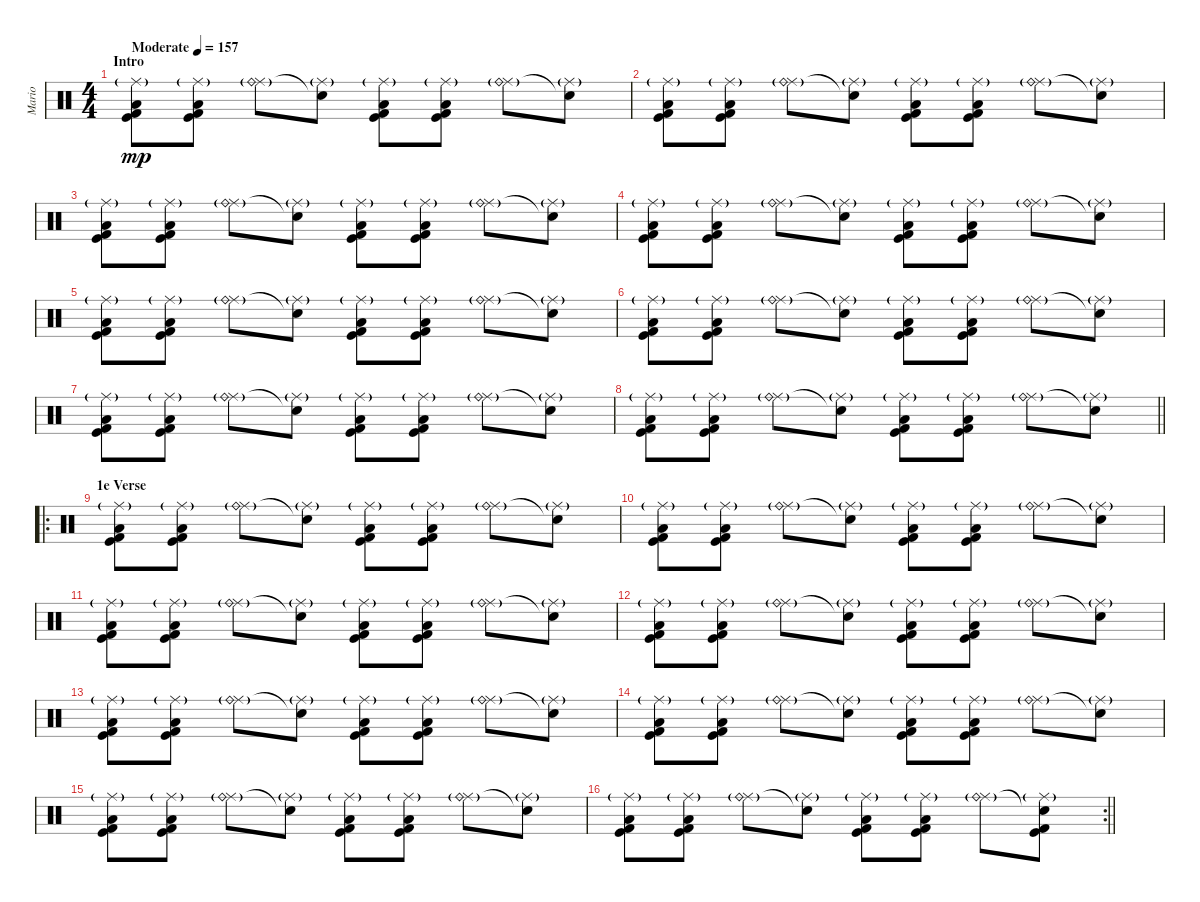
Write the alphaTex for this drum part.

\track ("Mario" "Mario") {instrument percussion}
\staff {score}
\articulation defaults
\ts (4 4)
\section ("" "Intro")
\tempo (157 "Moderate")
\clef neutral
\ks c
("Ride (middle)"{g} "Low Floor Tom (hit)" "Kick (hit)" "Kick (hit) 2").8{dy mp} ("Ride (middle)"{g} "Low Floor Tom (hit)" "Kick (hit)" "Kick (hit) 2").8 ("Ride (middle)"{g} "Ride (bell)").8 ("Ride (middle)"{g} "Snare (hit)"{t}).8 ("Ride (middle)"{g} "Low Floor Tom (hit)" "Kick (hit)" "Kick (hit) 2").8 ("Ride (middle)"{g} "Low Floor Tom (hit)" "Kick (hit)" "Kick (hit) 2").8 ("Ride (middle)"{g} "Ride (bell)").8 ("Ride (middle)"{g} "Snare (hit)"{t}).8 |
("Ride (middle)"{g} "Low Floor Tom (hit)" "Kick (hit)" "Kick (hit) 2").8 ("Ride (middle)"{g} "Low Floor Tom (hit)" "Kick (hit)" "Kick (hit) 2").8 ("Ride (middle)"{g} "Ride (bell)").8 ("Ride (middle)"{g} "Snare (hit)"{t}).8 ("Ride (middle)"{g} "Low Floor Tom (hit)" "Kick (hit)" "Kick (hit) 2").8 ("Ride (middle)"{g} "Low Floor Tom (hit)" "Kick (hit)" "Kick (hit) 2").8 ("Ride (middle)"{g} "Ride (bell)").8 ("Ride (middle)"{g} "Snare (hit)"{t}).8 |
("Ride (middle)"{g} "Low Floor Tom (hit)" "Kick (hit)" "Kick (hit) 2").8 ("Ride (middle)"{g} "Low Floor Tom (hit)" "Kick (hit)" "Kick (hit) 2").8 ("Ride (middle)"{g} "Ride (bell)").8 ("Ride (middle)"{g} "Snare (hit)"{t}).8 ("Ride (middle)"{g} "Low Floor Tom (hit)" "Kick (hit)" "Kick (hit) 2").8 ("Ride (middle)"{g} "Low Floor Tom (hit)" "Kick (hit)" "Kick (hit) 2").8 ("Ride (middle)"{g} "Ride (bell)").8 ("Ride (middle)"{g} "Snare (hit)"{t}).8 |
("Ride (middle)"{g} "Low Floor Tom (hit)" "Kick (hit)" "Kick (hit) 2").8 ("Ride (middle)"{g} "Low Floor Tom (hit)" "Kick (hit)" "Kick (hit) 2").8 ("Ride (middle)"{g} "Ride (bell)").8 ("Ride (middle)"{g} "Snare (hit)"{t}).8 ("Ride (middle)"{g} "Low Floor Tom (hit)" "Kick (hit)" "Kick (hit) 2").8 ("Ride (middle)"{g} "Low Floor Tom (hit)" "Kick (hit)" "Kick (hit) 2").8 ("Ride (middle)"{g} "Ride (bell)").8 ("Ride (middle)"{g} "Snare (hit)"{t}).8 |
("Ride (middle)"{g} "Low Floor Tom (hit)" "Kick (hit)" "Kick (hit) 2").8 ("Ride (middle)"{g} "Low Floor Tom (hit)" "Kick (hit)" "Kick (hit) 2").8 ("Ride (middle)"{g} "Ride (bell)").8 ("Ride (middle)"{g} "Snare (hit)"{t}).8 ("Ride (middle)"{g} "Low Floor Tom (hit)" "Kick (hit)" "Kick (hit) 2").8 ("Ride (middle)"{g} "Low Floor Tom (hit)" "Kick (hit)" "Kick (hit) 2").8 ("Ride (middle)"{g} "Ride (bell)").8 ("Ride (middle)"{g} "Snare (hit)"{t}).8 |
("Ride (middle)"{g} "Low Floor Tom (hit)" "Kick (hit)" "Kick (hit) 2").8 ("Ride (middle)"{g} "Low Floor Tom (hit)" "Kick (hit)" "Kick (hit) 2").8 ("Ride (middle)"{g} "Ride (bell)").8 ("Ride (middle)"{g} "Snare (hit)"{t}).8 ("Ride (middle)"{g} "Low Floor Tom (hit)" "Kick (hit)" "Kick (hit) 2").8 ("Ride (middle)"{g} "Low Floor Tom (hit)" "Kick (hit)" "Kick (hit) 2").8 ("Ride (middle)"{g} "Ride (bell)").8 ("Ride (middle)"{g} "Snare (hit)"{t}).8 |
("Ride (middle)"{g} "Low Floor Tom (hit)" "Kick (hit)" "Kick (hit) 2").8 ("Ride (middle)"{g} "Low Floor Tom (hit)" "Kick (hit)" "Kick (hit) 2").8 ("Ride (middle)"{g} "Ride (bell)").8 ("Ride (middle)"{g} "Snare (hit)"{t}).8 ("Ride (middle)"{g} "Low Floor Tom (hit)" "Kick (hit)" "Kick (hit) 2").8 ("Ride (middle)"{g} "Low Floor Tom (hit)" "Kick (hit)" "Kick (hit) 2").8 ("Ride (middle)"{g} "Ride (bell)").8 ("Ride (middle)"{g} "Snare (hit)"{t}).8 |
\barLineRight lightlight
("Ride (middle)"{g} "Low Floor Tom (hit)" "Kick (hit)" "Kick (hit) 2").8 ("Ride (middle)"{g} "Low Floor Tom (hit)" "Kick (hit)" "Kick (hit) 2").8 ("Ride (middle)"{g} "Ride (bell)").8 ("Ride (middle)"{g} "Snare (hit)"{t}).8 ("Ride (middle)"{g} "Low Floor Tom (hit)" "Kick (hit)" "Kick (hit) 2").8 ("Ride (middle)"{g} "Low Floor Tom (hit)" "Kick (hit)" "Kick (hit) 2").8 ("Ride (middle)"{g} "Ride (bell)").8 ("Ride (middle)"{g} "Snare (hit)"{t}).8 |
\ro
\section ("" "1e Verse")
("Ride (middle)"{g} "Low Floor Tom (hit)" "Kick (hit)" "Kick (hit) 2").8 ("Ride (middle)"{g} "Low Floor Tom (hit)" "Kick (hit)" "Kick (hit) 2").8 ("Ride (middle)"{g} "Ride (bell)").8 ("Ride (middle)"{g} "Snare (hit)"{t}).8 ("Ride (middle)"{g} "Low Floor Tom (hit)" "Kick (hit)" "Kick (hit) 2").8 ("Ride (middle)"{g} "Low Floor Tom (hit)" "Kick (hit)" "Kick (hit) 2").8 ("Ride (middle)"{g} "Ride (bell)").8 ("Ride (middle)"{g} "Snare (hit)"{t}).8 |
("Ride (middle)"{g} "Low Floor Tom (hit)" "Kick (hit)" "Kick (hit) 2").8 ("Ride (middle)"{g} "Low Floor Tom (hit)" "Kick (hit)" "Kick (hit) 2").8 ("Ride (middle)"{g} "Ride (bell)").8 ("Ride (middle)"{g} "Snare (hit)"{t}).8 ("Ride (middle)"{g} "Low Floor Tom (hit)" "Kick (hit)" "Kick (hit) 2").8 ("Ride (middle)"{g} "Low Floor Tom (hit)" "Kick (hit)" "Kick (hit) 2").8 ("Ride (middle)"{g} "Ride (bell)").8 ("Ride (middle)"{g} "Snare (hit)"{t}).8 |
("Ride (middle)"{g} "Low Floor Tom (hit)" "Kick (hit)" "Kick (hit) 2").8 ("Ride (middle)"{g} "Low Floor Tom (hit)" "Kick (hit)" "Kick (hit) 2").8 ("Ride (middle)"{g} "Ride (bell)").8 ("Ride (middle)"{g} "Snare (hit)"{t}).8 ("Ride (middle)"{g} "Low Floor Tom (hit)" "Kick (hit)" "Kick (hit) 2").8 ("Ride (middle)"{g} "Low Floor Tom (hit)" "Kick (hit)" "Kick (hit) 2").8 ("Ride (middle)"{g} "Ride (bell)").8 ("Ride (middle)"{g} "Snare (hit)"{t}).8 |
("Ride (middle)"{g} "Low Floor Tom (hit)" "Kick (hit)" "Kick (hit) 2").8 ("Ride (middle)"{g} "Low Floor Tom (hit)" "Kick (hit)" "Kick (hit) 2").8 ("Ride (middle)"{g} "Ride (bell)").8 ("Ride (middle)"{g} "Snare (hit)"{t}).8 ("Ride (middle)"{g} "Low Floor Tom (hit)" "Kick (hit)" "Kick (hit) 2").8 ("Ride (middle)"{g} "Low Floor Tom (hit)" "Kick (hit)" "Kick (hit) 2").8 ("Ride (middle)"{g} "Ride (bell)").8 ("Ride (middle)"{g} "Snare (hit)"{t}).8 |
("Ride (middle)"{g} "Low Floor Tom (hit)" "Kick (hit)" "Kick (hit) 2").8 ("Ride (middle)"{g} "Low Floor Tom (hit)" "Kick (hit)" "Kick (hit) 2").8 ("Ride (middle)"{g} "Ride (bell)").8 ("Ride (middle)"{g} "Snare (hit)"{t}).8 ("Ride (middle)"{g} "Low Floor Tom (hit)" "Kick (hit)" "Kick (hit) 2").8 ("Ride (middle)"{g} "Low Floor Tom (hit)" "Kick (hit)" "Kick (hit) 2").8 ("Ride (middle)"{g} "Ride (bell)").8 ("Ride (middle)"{g} "Snare (hit)"{t}).8 |
("Ride (middle)"{g} "Low Floor Tom (hit)" "Kick (hit)" "Kick (hit) 2").8 ("Ride (middle)"{g} "Low Floor Tom (hit)" "Kick (hit)" "Kick (hit) 2").8 ("Ride (middle)"{g} "Ride (bell)").8 ("Ride (middle)"{g} "Snare (hit)"{t}).8 ("Ride (middle)"{g} "Low Floor Tom (hit)" "Kick (hit)" "Kick (hit) 2").8 ("Ride (middle)"{g} "Low Floor Tom (hit)" "Kick (hit)" "Kick (hit) 2").8 ("Ride (middle)"{g} "Ride (bell)").8 ("Ride (middle)"{g} "Snare (hit)"{t}).8 |
("Ride (middle)"{g} "Low Floor Tom (hit)" "Kick (hit)" "Kick (hit) 2").8 ("Ride (middle)"{g} "Low Floor Tom (hit)" "Kick (hit)" "Kick (hit) 2").8 ("Ride (middle)"{g} "Ride (bell)").8 ("Ride (middle)"{g} "Snare (hit)"{t}).8 ("Ride (middle)"{g} "Low Floor Tom (hit)" "Kick (hit)" "Kick (hit) 2").8 ("Ride (middle)"{g} "Low Floor Tom (hit)" "Kick (hit)" "Kick (hit) 2").8 ("Ride (middle)"{g} "Ride (bell)").8 ("Ride (middle)"{g} "Snare (hit)"{t}).8 |
\rc 2
\barLineRight lightlight
("Ride (middle)"{g} "Low Floor Tom (hit)" "Kick (hit)" "Kick (hit) 2").8 ("Ride (middle)"{g} "Low Floor Tom (hit)" "Kick (hit)" "Kick (hit) 2").8 ("Ride (middle)"{g} "Ride (bell)").8 ("Ride (middle)"{g} "Snare (hit)"{t}).8 ("Ride (middle)"{g} "Low Floor Tom (hit)" "Kick (hit)" "Kick (hit) 2").8 ("Ride (middle)"{g} "Low Floor Tom (hit)" "Kick (hit)" "Kick (hit) 2").8 ("Ride (middle)"{g} "Ride (bell)").8 ("Ride (middle)"{g} "Snare (hit)"{t} "Kick (hit)" "Kick (hit) 2").8
